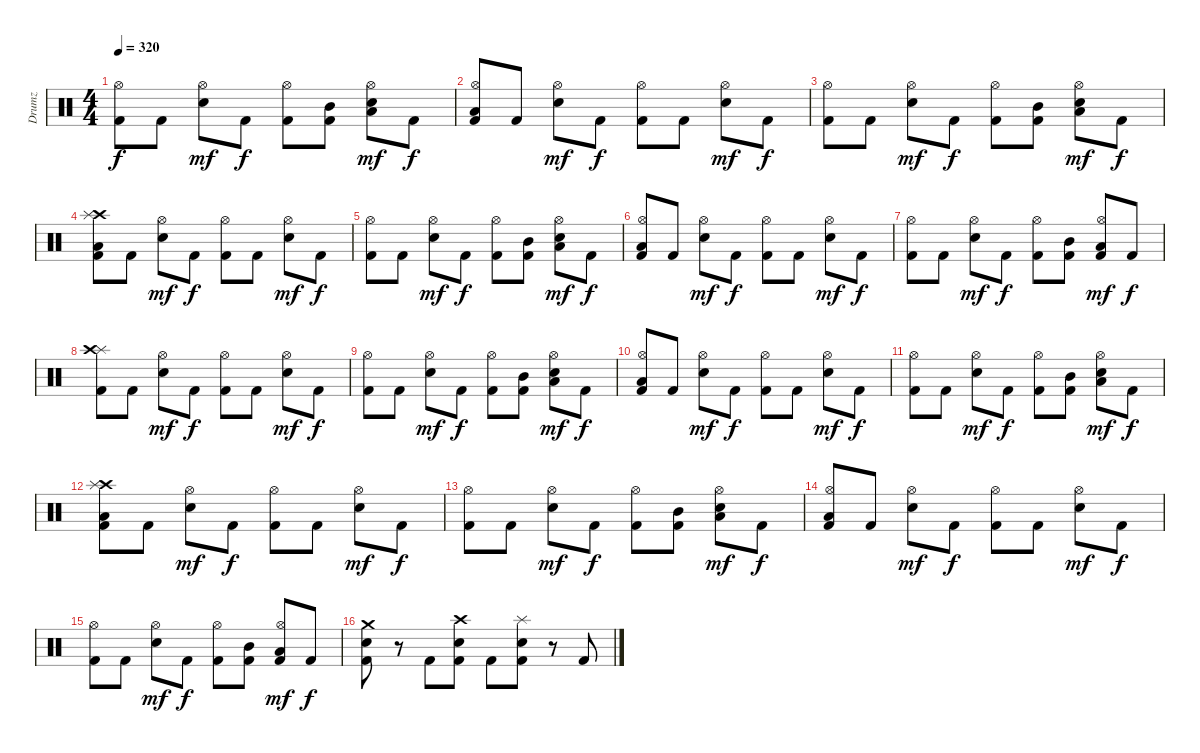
\track ("Drumz" "Drumz") {instrument percussion}
\staff {score}
\articulation defaults
\ts (4 4)
\tempo 320
\clef neutral
\ks c
("Kick (hit) 2" "Hi-Hat (open)").8{dy f} "Kick (hit) 2".8 ("Snare (hit) 2" "Hi-Hat (open)").8{dy mf} "Kick (hit) 2".8{dy f} ("Kick (hit) 2" "Hi-Hat (open)").8 ("Kick (hit) 2" "Mid Tom (hit)").8 ("Hi-Hat (open)" "Snare (hit) 2" "Low Tom (hit)").8{dy mf} "Kick (hit) 2".8{dy f} |
("Kick (hit) 2" "Hi-Hat (open)" "Low Floor Tom (hit)").8 "Kick (hit) 2".8 ("Snare (hit) 2" "Hi-Hat (open)").8{dy mf} "Kick (hit) 2".8{dy f} ("Kick (hit) 2" "Hi-Hat (open)").8 "Kick (hit) 2".8 ("Snare (hit) 2" "Hi-Hat (open)").8{dy mf} "Kick (hit) 2".8{dy f} |
("Kick (hit) 2" "Hi-Hat (open)").8 "Kick (hit) 2".8 ("Snare (hit) 2" "Hi-Hat (open)").8{dy mf} "Kick (hit) 2".8{dy f} ("Kick (hit) 2" "Hi-Hat (open)").8 ("Kick (hit) 2" "Mid Tom (hit)").8 ("Hi-Hat (open)" "Snare (hit) 2" "Low Tom (hit)").8{dy mf} "Kick (hit) 2".8{dy f} |
("Kick (hit) 2" "Low Floor Tom (hit)" "Crash high (hit)" "Splash (hit)").8 "Kick (hit) 2".8 ("Snare (hit) 2" "Hi-Hat (open)").8{dy mf} "Kick (hit) 2".8{dy f} ("Kick (hit) 2" "Hi-Hat (open)").8 "Kick (hit) 2".8 ("Snare (hit) 2" "Hi-Hat (open)").8{dy mf} "Kick (hit) 2".8{dy f} |
("Kick (hit) 2" "Hi-Hat (open)").8 "Kick (hit) 2".8 ("Snare (hit) 2" "Hi-Hat (open)").8{dy mf} "Kick (hit) 2".8{dy f} ("Kick (hit) 2" "Hi-Hat (open)").8 ("Kick (hit) 2" "Mid Tom (hit)").8 ("Hi-Hat (open)" "Snare (hit) 2" "Low Tom (hit)").8{dy mf} "Kick (hit) 2".8{dy f} |
("Low Floor Tom (hit)" "Hi-Hat (open)" "Kick (hit) 2").8 "Kick (hit) 2".8 ("Snare (hit) 2" "Hi-Hat (open)").8{dy mf} "Kick (hit) 2".8{dy f} ("Kick (hit) 2" "Hi-Hat (open)").8 "Kick (hit) 2".8 ("Snare (hit) 2" "Hi-Hat (open)").8{dy mf} "Kick (hit) 2".8{dy f} |
("Kick (hit) 2" "Hi-Hat (open)").8 "Kick (hit) 2".8 ("Snare (hit) 2" "Hi-Hat (open)").8{dy mf} "Kick (hit) 2".8{dy f} ("Kick (hit) 2" "Hi-Hat (open)").8 ("Mid Tom (hit)" "Kick (hit) 2").8 ("Low Tom (hit)" "Kick (hit) 2" "Hi-Hat (open)").8{dy mf} "Kick (hit) 2".8{dy f} |
("Kick (hit) 2" "Splash (hit)" "Crash high (hit)").8 "Kick (hit) 2".8 ("Snare (hit) 2" "Hi-Hat (open)").8{dy mf} "Kick (hit) 2".8{dy f} ("Kick (hit) 2" "Hi-Hat (open)").8 "Kick (hit) 2".8 ("Snare (hit) 2" "Hi-Hat (open)").8{dy mf} "Kick (hit) 2".8{dy f} |
("Kick (hit) 2" "Hi-Hat (open)").8 "Kick (hit) 2".8 ("Snare (hit) 2" "Hi-Hat (open)").8{dy mf} "Kick (hit) 2".8{dy f} ("Kick (hit) 2" "Hi-Hat (open)").8 ("Kick (hit) 2" "Mid Tom (hit)").8 ("Hi-Hat (open)" "Snare (hit) 2" "Low Tom (hit)").8{dy mf} "Kick (hit) 2".8{dy f} |
("Kick (hit) 2" "Hi-Hat (open)" "Low Floor Tom (hit)").8 "Kick (hit) 2".8 ("Snare (hit) 2" "Hi-Hat (open)").8{dy mf} "Kick (hit) 2".8{dy f} ("Kick (hit) 2" "Hi-Hat (open)").8 "Kick (hit) 2".8 ("Snare (hit) 2" "Hi-Hat (open)").8{dy mf} "Kick (hit) 2".8{dy f} |
("Kick (hit) 2" "Hi-Hat (open)").8 "Kick (hit) 2".8 ("Snare (hit) 2" "Hi-Hat (open)").8{dy mf} "Kick (hit) 2".8{dy f} ("Kick (hit) 2" "Hi-Hat (open)").8 ("Kick (hit) 2" "Mid Tom (hit)").8 ("Hi-Hat (open)" "Snare (hit) 2" "Low Tom (hit)").8{dy mf} "Kick (hit) 2".8{dy f} |
("Kick (hit) 2" "Low Floor Tom (hit)" "Crash high (hit)" "Splash (hit)").8 "Kick (hit) 2".8 ("Snare (hit) 2" "Hi-Hat (open)").8{dy mf} "Kick (hit) 2".8{dy f} ("Kick (hit) 2" "Hi-Hat (open)").8 "Kick (hit) 2".8 ("Snare (hit) 2" "Hi-Hat (open)").8{dy mf} "Kick (hit) 2".8{dy f} |
("Kick (hit) 2" "Hi-Hat (open)").8 "Kick (hit) 2".8 ("Snare (hit) 2" "Hi-Hat (open)").8{dy mf} "Kick (hit) 2".8{dy f} ("Kick (hit) 2" "Hi-Hat (open)").8 ("Kick (hit) 2" "Mid Tom (hit)").8 ("Hi-Hat (open)" "Snare (hit) 2" "Low Tom (hit)").8{dy mf} "Kick (hit) 2".8{dy f} |
("Low Floor Tom (hit)" "Hi-Hat (open)" "Kick (hit) 2").8 "Kick (hit) 2".8 ("Snare (hit) 2" "Hi-Hat (open)").8{dy mf} "Kick (hit) 2".8{dy f} ("Kick (hit) 2" "Hi-Hat (open)").8 "Kick (hit) 2".8 ("Snare (hit) 2" "Hi-Hat (open)").8{dy mf} "Kick (hit) 2".8{dy f} |
("Kick (hit) 2" "Hi-Hat (open)").8 "Kick (hit) 2".8 ("Snare (hit) 2" "Hi-Hat (open)").8{dy mf} "Kick (hit) 2".8{dy f} ("Kick (hit) 2" "Hi-Hat (open)").8 ("Mid Tom (hit)" "Kick (hit) 2").8 ("Low Tom (hit)" "Kick (hit) 2" "Hi-Hat (open)").8{dy mf} "Kick (hit) 2".8{dy f} |
("Crash medium (hit)" "Snare (hit) 2" "Kick (hit) 2").8 r.8 "Kick (hit) 2".8 ("Crash high (hit)" "Snare (hit) 2" "Kick (hit) 2").8 "Kick (hit) 2".8 ("Splash (hit)" "Snare (hit) 2" "Kick (hit) 2").8 r.8 "Kick (hit) 2".8
